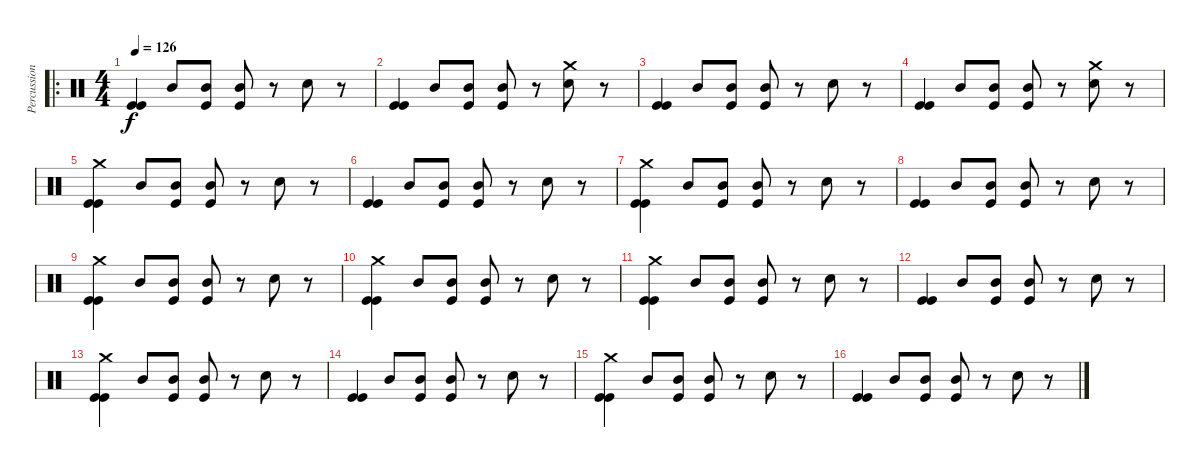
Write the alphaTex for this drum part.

\track ("Percussion" "Percussion") {instrument percussion}
\staff {score}
\articulation defaults
\ro
\ts (4 4)
\tempo 126
\clef neutral
\ks c
("Kick (hit)" "Kick (hit)").4{dy f} "Mid Tom (hit)".8 ("Mid Tom (hit)" "Kick (hit)").8 ("Mid Tom (hit)" "Kick (hit)").8 r.8 "Snare (hit) 2".8 r.8 |
("Kick (hit)" "Kick (hit)").4 "Mid Tom (hit)".8 ("Mid Tom (hit)" "Kick (hit)").8 ("Mid Tom (hit)" "Kick (hit)").8 r.8 ("Crash medium (hit)" "Snare (hit) 2").8 r.8 |
("Kick (hit)" "Kick (hit)").4 "Mid Tom (hit)".8 ("Mid Tom (hit)" "Kick (hit)").8 ("Mid Tom (hit)" "Kick (hit)").8 r.8 "Snare (hit) 2".8 r.8 |
("Kick (hit)" "Kick (hit)").4 "Mid Tom (hit)".8 ("Mid Tom (hit)" "Kick (hit)").8 ("Mid Tom (hit)" "Kick (hit)").8 r.8 ("Crash medium (hit)" "Snare (hit) 2").8 r.8 |
("Crash medium (hit)" "Kick (hit)" "Kick (hit)").4 "Mid Tom (hit)".8 ("Mid Tom (hit)" "Kick (hit)").8 ("Mid Tom (hit)" "Kick (hit)").8 r.8 "Snare (hit) 2".8 r.8 |
("Kick (hit)" "Kick (hit)").4 "Mid Tom (hit)".8 ("Mid Tom (hit)" "Kick (hit)").8 ("Mid Tom (hit)" "Kick (hit)").8 r.8 "Snare (hit) 2".8 r.8 |
("Crash medium (hit)" "Kick (hit)" "Kick (hit)").4 "Mid Tom (hit)".8 ("Mid Tom (hit)" "Kick (hit)").8 ("Mid Tom (hit)" "Kick (hit)").8 r.8 "Snare (hit) 2".8 r.8 |
("Kick (hit)" "Kick (hit)").4 "Mid Tom (hit)".8 ("Mid Tom (hit)" "Kick (hit)").8 ("Mid Tom (hit)" "Kick (hit)").8 r.8 "Snare (hit) 2".8 r.8 |
("Crash medium (hit)" "Kick (hit)" "Kick (hit)").4 "Mid Tom (hit)".8 ("Mid Tom (hit)" "Kick (hit)").8 ("Mid Tom (hit)" "Kick (hit)").8 r.8 "Snare (hit) 2".8 r.8 |
("Crash medium (hit)" "Kick (hit)" "Kick (hit)").4 "Mid Tom (hit)".8 ("Mid Tom (hit)" "Kick (hit)").8 ("Mid Tom (hit)" "Kick (hit)").8 r.8 "Snare (hit) 2".8 r.8 |
("Crash medium (hit)" "Kick (hit)" "Kick (hit)").4 "Mid Tom (hit)".8 ("Mid Tom (hit)" "Kick (hit)").8 ("Mid Tom (hit)" "Kick (hit)").8 r.8 "Snare (hit) 2".8 r.8 |
("Kick (hit)" "Kick (hit)").4 "Mid Tom (hit)".8 ("Mid Tom (hit)" "Kick (hit)").8 ("Mid Tom (hit)" "Kick (hit)").8 r.8 "Snare (hit) 2".8 r.8 |
("Crash medium (hit)" "Kick (hit)" "Kick (hit)").4 "Mid Tom (hit)".8 ("Mid Tom (hit)" "Kick (hit)").8 ("Mid Tom (hit)" "Kick (hit)").8 r.8 "Snare (hit) 2".8 r.8 |
("Kick (hit)" "Kick (hit)").4 "Mid Tom (hit)".8 ("Mid Tom (hit)" "Kick (hit)").8 ("Mid Tom (hit)" "Kick (hit)").8 r.8 "Snare (hit) 2".8 r.8 |
("Crash medium (hit)" "Kick (hit)" "Kick (hit)").4 "Mid Tom (hit)".8 ("Mid Tom (hit)" "Kick (hit)").8 ("Mid Tom (hit)" "Kick (hit)").8 r.8 "Snare (hit) 2".8 r.8 |
("Kick (hit)" "Kick (hit)").4 "Mid Tom (hit)".8 ("Mid Tom (hit)" "Kick (hit)").8 ("Mid Tom (hit)" "Kick (hit)").8 r.8 "Snare (hit) 2".8 r.8
